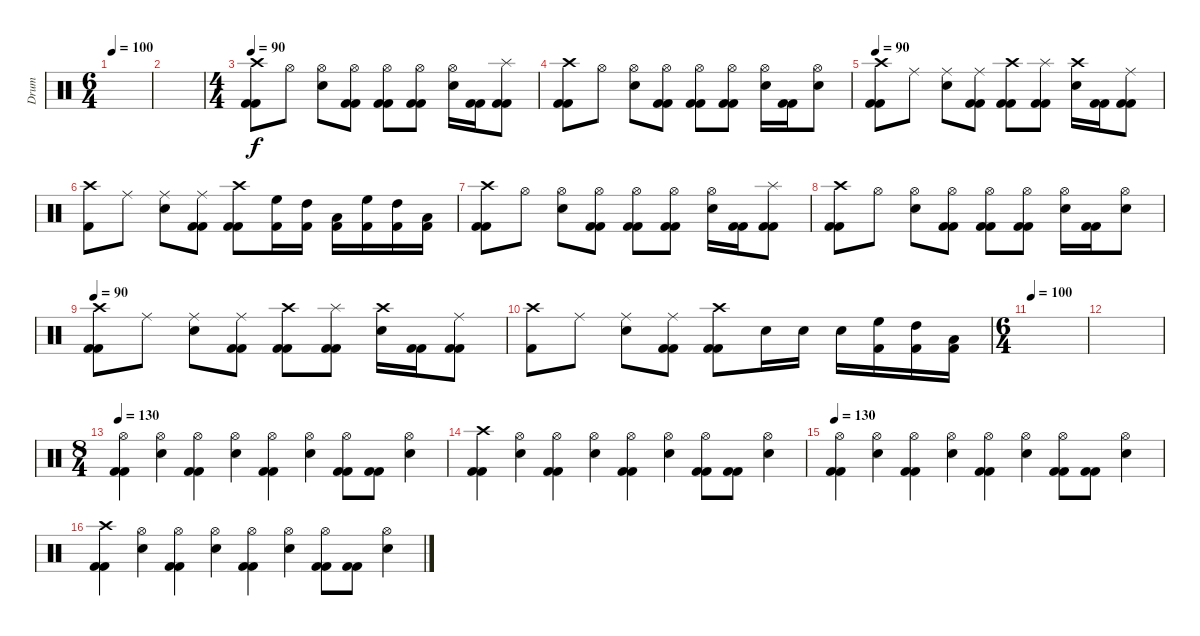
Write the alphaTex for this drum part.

\track ("Drum" "Drum") {instrument percussion}
\staff {score}
\articulation defaults
\ts (6 4)
\tempo 100
\clef neutral
\ks c
|
|
\ts (4 4)
\tempo 90
("Crash high (hit)" "Kick (hit) 2" "Kick (hit) 2").8 "Hi-Hat (open)".8 ("Hi-Hat (open)" "Electric Snare (hit)").8 ("Hi-Hat (open)" "Kick (hit) 2" "Kick (hit) 2").8 ("Hi-Hat (open)" "Kick (hit) 2" "Kick (hit) 2").8 ("Hi-Hat (open)" "Kick (hit) 2" "Kick (hit) 2").8 ("Hi-Hat (open)" "Electric Snare (hit)").16 ("Kick (hit) 2" "Kick (hit) 2").16 ("Splash (hit)" "Kick (hit) 2" "Kick (hit) 2").8 |
("Crash high (hit)" "Kick (hit) 2" "Kick (hit) 2").8 "Hi-Hat (open)".8 ("Hi-Hat (open)" "Electric Snare (hit)").8 ("Hi-Hat (open)" "Kick (hit) 2" "Kick (hit) 2").8 ("Hi-Hat (open)" "Kick (hit) 2" "Kick (hit) 2").8 ("Hi-Hat (open)" "Kick (hit) 2" "Kick (hit) 2").8 ("Hi-Hat (open)" "Electric Snare (hit)").16 ("Kick (hit) 2" "Kick (hit) 2").16 ("Hi-Hat (open)" "Electric Snare (hit)").8 |
\tempo 90
("Crash high (hit)" "Kick (hit) 2" "Kick (hit) 2").8 "Ride (middle)".8 ("Ride (middle)" "Electric Snare (hit)").8 ("Ride (middle)" "Kick (hit) 2" "Kick (hit) 2").8 ("Crash high (hit)" "Kick (hit) 2" "Kick (hit) 2").8 ("Splash (hit)" "Kick (hit) 2" "Kick (hit) 2").8 ("Crash high (hit)" "Electric Snare (hit)").16 ("Kick (hit) 2" "Kick (hit) 2").16 ("Ride (middle)" "Kick (hit) 2" "Kick (hit) 2").8 |
("Crash high (hit)" "Kick (hit) 2").8 "Ride (middle)".8 ("Ride (middle)" "Electric Snare (hit)").8 ("Ride (middle)" "Kick (hit) 2" "Kick (hit) 2").8 ("Crash high (hit)" "Kick (hit) 2" "Kick (hit) 2").8 ("High Floor Tom (hit)" "Kick (hit) 2").16 ("High Tom (hit)" "Kick (hit) 2").16 ("Low Tom (hit)" "Kick (hit) 2").16 ("High Floor Tom (hit)" "Kick (hit) 2").16 ("High Tom (hit)" "Kick (hit) 2").16 ("Low Tom (hit)" "Kick (hit) 2").16 |
("Crash high (hit)" "Kick (hit) 2" "Kick (hit) 2").8 "Hi-Hat (open)".8 ("Hi-Hat (open)" "Electric Snare (hit)").8 ("Hi-Hat (open)" "Kick (hit) 2" "Kick (hit) 2").8 ("Hi-Hat (open)" "Kick (hit) 2" "Kick (hit) 2").8 ("Hi-Hat (open)" "Kick (hit) 2" "Kick (hit) 2").8 ("Hi-Hat (open)" "Electric Snare (hit)").16 ("Kick (hit) 2" "Kick (hit) 2").16 ("Splash (hit)" "Kick (hit) 2" "Kick (hit) 2").8 |
("Crash high (hit)" "Kick (hit) 2" "Kick (hit) 2").8 "Hi-Hat (open)".8 ("Hi-Hat (open)" "Electric Snare (hit)").8 ("Hi-Hat (open)" "Kick (hit) 2" "Kick (hit) 2").8 ("Hi-Hat (open)" "Kick (hit) 2" "Kick (hit) 2").8 ("Hi-Hat (open)" "Kick (hit) 2" "Kick (hit) 2").8 ("Hi-Hat (open)" "Electric Snare (hit)").16 ("Kick (hit) 2" "Kick (hit) 2").16 ("Hi-Hat (open)" "Electric Snare (hit)").8 |
\tempo 90
("Crash high (hit)" "Kick (hit) 2" "Kick (hit) 2").8 "Ride (middle)".8 ("Ride (middle)" "Electric Snare (hit)").8 ("Ride (middle)" "Kick (hit) 2" "Kick (hit) 2").8 ("Crash high (hit)" "Kick (hit) 2" "Kick (hit) 2").8 ("Splash (hit)" "Kick (hit) 2" "Kick (hit) 2").8 ("Crash high (hit)" "Electric Snare (hit)").16 ("Kick (hit) 2" "Kick (hit) 2").16 ("Ride (middle)" "Kick (hit) 2" "Kick (hit) 2").8 |
("Crash high (hit)" "Kick (hit) 2").8 "Ride (middle)".8 ("Ride (middle)" "Electric Snare (hit)").8 ("Ride (middle)" "Kick (hit) 2" "Kick (hit) 2").8 ("Crash high (hit)" "Kick (hit) 2" "Kick (hit) 2").8 "Electric Snare (hit)".16 "Electric Snare (hit)".16 "Electric Snare (hit)".16 ("High Floor Tom (hit)" "Kick (hit) 2").16 ("High Tom (hit)" "Kick (hit) 2").16 ("Low Tom (hit)" "Kick (hit) 2").16 |
\ts (6 4)
\tempo 100
|
|
\ts (8 4)
\tempo 130
("Hi-Hat (open)" "Kick (hit) 2" "Kick (hit) 2").4 ("Hi-Hat (open)" "Electric Snare (hit)").4 ("Hi-Hat (open)" "Kick (hit) 2" "Kick (hit) 2").4 ("Hi-Hat (open)" "Electric Snare (hit)").4 ("Hi-Hat (open)" "Kick (hit) 2" "Kick (hit) 2").4 ("Hi-Hat (open)" "Electric Snare (hit)").4 ("Hi-Hat (open)" "Kick (hit) 2" "Kick (hit) 2").8 ("Kick (hit) 2" "Kick (hit) 2").8 ("Hi-Hat (open)" "Electric Snare (hit)").4 |
("Crash high (hit)" "Kick (hit) 2" "Kick (hit) 2").4 ("Hi-Hat (open)" "Electric Snare (hit)").4 ("Hi-Hat (open)" "Kick (hit) 2" "Kick (hit) 2").4 ("Hi-Hat (open)" "Electric Snare (hit)").4 ("Hi-Hat (open)" "Kick (hit) 2" "Kick (hit) 2").4 ("Hi-Hat (open)" "Electric Snare (hit)").4 ("Hi-Hat (open)" "Kick (hit) 2" "Kick (hit) 2").8 ("Kick (hit) 2" "Kick (hit) 2").8 ("Hi-Hat (open)" "Electric Snare (hit)").4 |
\tempo 130
("Hi-Hat (open)" "Kick (hit) 2" "Kick (hit) 2").4 ("Hi-Hat (open)" "Electric Snare (hit)").4 ("Hi-Hat (open)" "Kick (hit) 2" "Kick (hit) 2").4 ("Hi-Hat (open)" "Electric Snare (hit)").4 ("Hi-Hat (open)" "Kick (hit) 2" "Kick (hit) 2").4 ("Hi-Hat (open)" "Electric Snare (hit)").4 ("Hi-Hat (open)" "Kick (hit) 2" "Kick (hit) 2").8 ("Kick (hit) 2" "Kick (hit) 2").8 ("Hi-Hat (open)" "Electric Snare (hit)").4 |
("Crash high (hit)" "Kick (hit) 2" "Kick (hit) 2").4 ("Hi-Hat (open)" "Electric Snare (hit)").4 ("Hi-Hat (open)" "Kick (hit) 2" "Kick (hit) 2").4 ("Hi-Hat (open)" "Electric Snare (hit)").4 ("Hi-Hat (open)" "Kick (hit) 2" "Kick (hit) 2").4 ("Hi-Hat (open)" "Electric Snare (hit)").4 ("Hi-Hat (open)" "Kick (hit) 2" "Kick (hit) 2").8 ("Kick (hit) 2" "Kick (hit) 2").8 ("Hi-Hat (open)" "Electric Snare (hit)").4
